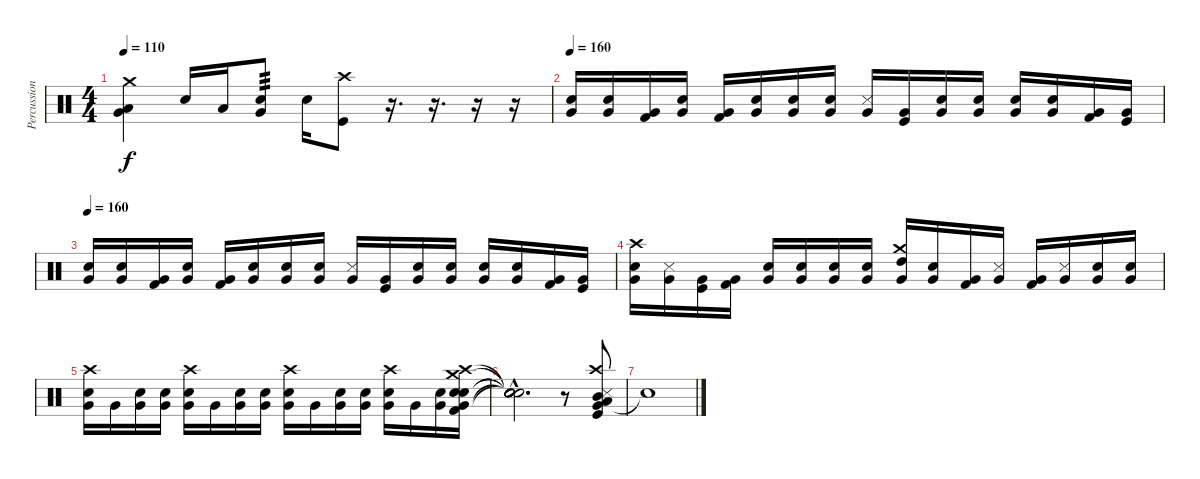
\track ("Percussion-group" "Percussion") {instrument percussion}
\staff {score}
\articulation defaults
\ts (4 4)
\tempo 110
\clef neutral
\ks c
("Very Low Tom (hit)" "Low Tom (hit)" "Crash medium (hit)").4{dy f} "Electric Snare (hit)".16 "Low Tom (hit)".16 ("Very Low Tom (hit)" "Snare (hit) 2").8{tp 3} "Snare (hit) 2".16 ("Kick (hit)" "Crash high (hit)").8 r.16{d} r.16{d} r.16 r.16 |
\tempo 160
("Very Low Tom (hit)" "Electric Snare (hit)").16 ("Very Low Tom (hit)" "Snare (hit) 2").16 ("Very Low Tom (hit)" "Kick (hit) 2").16 ("Very Low Tom (hit)" "Electric Snare (hit)").16 ("Very Low Tom (hit)" "Kick (hit) 2").16 ("Very Low Tom (hit)" "Snare (hit) 2").16 ("Very Low Tom (hit)" "Snare (hit) 2").16 ("Very Low Tom (hit)" "Electric Snare (hit)").16 ("Very Low Tom (hit)" "Metronome (hit)").16 ("Very Low Tom (hit)" "Kick (hit)").16 ("Very Low Tom (hit)" "Snare (hit) 2").16 ("Very Low Tom (hit)" "Electric Snare (hit)").16 ("Very Low Tom (hit)" "Electric Snare (hit)").16 ("Very Low Tom (hit)" "Electric Snare (hit)").16 ("Very Low Tom (hit)" "Kick (hit) 2").16 ("Very Low Tom (hit)" "Kick (hit)").16 |
\tempo 160
("Very Low Tom (hit)" "Electric Snare (hit)").16 ("Very Low Tom (hit)" "Snare (hit) 2").16 ("Very Low Tom (hit)" "Kick (hit) 2").16 ("Very Low Tom (hit)" "Electric Snare (hit)").16 ("Very Low Tom (hit)" "Kick (hit) 2").16 ("Very Low Tom (hit)" "Snare (hit) 2").16 ("Very Low Tom (hit)" "Snare (hit) 2").16 ("Very Low Tom (hit)" "Electric Snare (hit)").16 ("Very Low Tom (hit)" "Metronome (hit)").16 ("Very Low Tom (hit)" "Kick (hit)").16 ("Very Low Tom (hit)" "Snare (hit) 2").16 ("Very Low Tom (hit)" "Electric Snare (hit)").16 ("Very Low Tom (hit)" "Electric Snare (hit)").16 ("Very Low Tom (hit)" "Electric Snare (hit)").16 ("Very Low Tom (hit)" "Kick (hit) 2").16 ("Very Low Tom (hit)" "Kick (hit)").16 |
("Very Low Tom (hit)" "Electric Snare (hit)" "Crash high (hit)").16 ("Very Low Tom (hit)" "Metronome (hit)").16 ("Very Low Tom (hit)" "Kick (hit)").16 ("Very Low Tom (hit)" "Kick (hit) 2").16 ("Very Low Tom (hit)" "Snare (hit) 2").16 ("Very Low Tom (hit)" "Electric Snare (hit)").16 ("Very Low Tom (hit)" "Snare (hit) 2").16 ("Very Low Tom (hit)" "Electric Snare (hit)").16 ("Very Low Tom (hit)" "High Tom (hit)" "Crash medium (hit)").16 ("Very Low Tom (hit)" "Electric Snare (hit)").16 ("Very Low Tom (hit)" "Kick (hit) 2").16 ("Very Low Tom (hit)" "Metronome (hit)").16 ("Very Low Tom (hit)" "Kick (hit) 2").16 ("Very Low Tom (hit)" "Metronome (hit)").16 ("Very Low Tom (hit)" "Electric Snare (hit)").16 ("Very Low Tom (hit)" "Snare (hit) 2").16 |
("Very Low Tom (hit)" "Electric Snare (hit)" "Crash high (hit)").16 "Very Low Tom (hit)".16 ("Very Low Tom (hit)" "Snare (hit) 2").16 ("Very Low Tom (hit)" "Snare (hit) 2").16 ("Very Low Tom (hit)" "Electric Snare (hit)" "Crash high (hit)").16 "Very Low Tom (hit)".16 ("Very Low Tom (hit)" "Snare (hit) 2").16 ("Very Low Tom (hit)" "Snare (hit) 2").16 ("Very Low Tom (hit)" "Electric Snare (hit)" "Crash high (hit)").16 "Very Low Tom (hit)".16 ("Very Low Tom (hit)" "Snare (hit) 2").16 ("Very Low Tom (hit)" "Snare (hit) 2").16 ("Very Low Tom (hit)" "Electric Snare (hit)" "Crash high (hit)").16 "Very Low Tom (hit)".16 ("Very Low Tom (hit)" "Snare (hit) 2").16 ("Very Low Tom (hit)" "Snare (hit) 2" "Kick (hit) 2" "Crash high (hit)" "Crash medium (hit)" "Electric Snare (hit)").16 |
("Snare (hit)"{hac t} "Snare (hit)"{hac t} "Snare (hit)"{hac t} "Snare (hit)"{hac t} "Snare (hit)"{hac t} "Snare (hit)"{hac t}).2{d} r.8 ("Very Low Tom (hit)" "Low Tom (hit)" "Mid Tom (hit)" "Metronome (hit)" "Kick (hit)" "Crash high (hit)").8 |
"Snare (hit)"{t}.1
